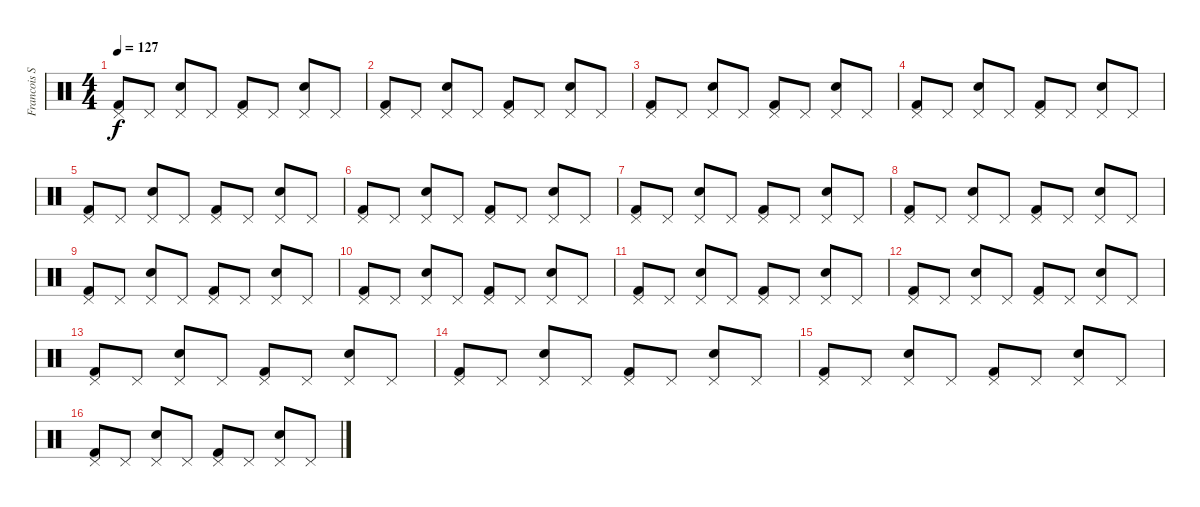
\track ("Francois Soulier" "Francois S") {instrument percussion}
\staff {score}
\articulation defaults
\ts (4 4)
\tempo 127
\clef neutral
\ks c
("Kick (hit) 2" "Pedal Hi-Hat (hit)").8{dy f} "Pedal Hi-Hat (hit)".8 ("Snare (hit) 2" "Pedal Hi-Hat (hit)").8 "Pedal Hi-Hat (hit)".8 ("Kick (hit) 2" "Pedal Hi-Hat (hit)").8 "Pedal Hi-Hat (hit)".8 ("Snare (hit) 2" "Pedal Hi-Hat (hit)").8 "Pedal Hi-Hat (hit)".8 |
("Kick (hit) 2" "Pedal Hi-Hat (hit)").8 "Pedal Hi-Hat (hit)".8 ("Snare (hit) 2" "Pedal Hi-Hat (hit)").8 "Pedal Hi-Hat (hit)".8 ("Kick (hit) 2" "Pedal Hi-Hat (hit)").8 "Pedal Hi-Hat (hit)".8 ("Snare (hit) 2" "Pedal Hi-Hat (hit)").8 "Pedal Hi-Hat (hit)".8 |
("Kick (hit) 2" "Pedal Hi-Hat (hit)").8 "Pedal Hi-Hat (hit)".8 ("Snare (hit) 2" "Pedal Hi-Hat (hit)").8 "Pedal Hi-Hat (hit)".8 ("Kick (hit) 2" "Pedal Hi-Hat (hit)").8 "Pedal Hi-Hat (hit)".8 ("Snare (hit) 2" "Pedal Hi-Hat (hit)").8 "Pedal Hi-Hat (hit)".8 |
("Kick (hit) 2" "Pedal Hi-Hat (hit)").8 "Pedal Hi-Hat (hit)".8 ("Snare (hit) 2" "Pedal Hi-Hat (hit)").8 "Pedal Hi-Hat (hit)".8 ("Kick (hit) 2" "Pedal Hi-Hat (hit)").8 "Pedal Hi-Hat (hit)".8 ("Snare (hit) 2" "Pedal Hi-Hat (hit)").8 "Pedal Hi-Hat (hit)".8 |
("Kick (hit) 2" "Pedal Hi-Hat (hit)").8 "Pedal Hi-Hat (hit)".8 ("Snare (hit) 2" "Pedal Hi-Hat (hit)").8 "Pedal Hi-Hat (hit)".8 ("Kick (hit) 2" "Pedal Hi-Hat (hit)").8 "Pedal Hi-Hat (hit)".8 ("Snare (hit) 2" "Pedal Hi-Hat (hit)").8 "Pedal Hi-Hat (hit)".8 |
("Kick (hit) 2" "Pedal Hi-Hat (hit)").8 "Pedal Hi-Hat (hit)".8 ("Snare (hit) 2" "Pedal Hi-Hat (hit)").8 "Pedal Hi-Hat (hit)".8 ("Kick (hit) 2" "Pedal Hi-Hat (hit)").8 "Pedal Hi-Hat (hit)".8 ("Snare (hit) 2" "Pedal Hi-Hat (hit)").8 "Pedal Hi-Hat (hit)".8 |
("Kick (hit) 2" "Pedal Hi-Hat (hit)").8 "Pedal Hi-Hat (hit)".8 ("Snare (hit) 2" "Pedal Hi-Hat (hit)").8 "Pedal Hi-Hat (hit)".8 ("Kick (hit) 2" "Pedal Hi-Hat (hit)").8 "Pedal Hi-Hat (hit)".8 ("Snare (hit) 2" "Pedal Hi-Hat (hit)").8 "Pedal Hi-Hat (hit)".8 |
("Kick (hit) 2" "Pedal Hi-Hat (hit)").8 "Pedal Hi-Hat (hit)".8 ("Snare (hit) 2" "Pedal Hi-Hat (hit)").8 "Pedal Hi-Hat (hit)".8 ("Kick (hit) 2" "Pedal Hi-Hat (hit)").8 "Pedal Hi-Hat (hit)".8 ("Snare (hit) 2" "Pedal Hi-Hat (hit)").8 "Pedal Hi-Hat (hit)".8 |
("Kick (hit) 2" "Pedal Hi-Hat (hit)").8 "Pedal Hi-Hat (hit)".8 ("Snare (hit) 2" "Pedal Hi-Hat (hit)").8 "Pedal Hi-Hat (hit)".8 ("Kick (hit) 2" "Pedal Hi-Hat (hit)").8 "Pedal Hi-Hat (hit)".8 ("Snare (hit) 2" "Pedal Hi-Hat (hit)").8 "Pedal Hi-Hat (hit)".8 |
("Kick (hit) 2" "Pedal Hi-Hat (hit)").8 "Pedal Hi-Hat (hit)".8 ("Snare (hit) 2" "Pedal Hi-Hat (hit)").8 "Pedal Hi-Hat (hit)".8 ("Kick (hit) 2" "Pedal Hi-Hat (hit)").8 "Pedal Hi-Hat (hit)".8 ("Snare (hit) 2" "Pedal Hi-Hat (hit)").8 "Pedal Hi-Hat (hit)".8 |
("Kick (hit) 2" "Pedal Hi-Hat (hit)").8 "Pedal Hi-Hat (hit)".8 ("Snare (hit) 2" "Pedal Hi-Hat (hit)").8 "Pedal Hi-Hat (hit)".8 ("Kick (hit) 2" "Pedal Hi-Hat (hit)").8 "Pedal Hi-Hat (hit)".8 ("Snare (hit) 2" "Pedal Hi-Hat (hit)").8 "Pedal Hi-Hat (hit)".8 |
("Kick (hit) 2" "Pedal Hi-Hat (hit)").8 "Pedal Hi-Hat (hit)".8 ("Snare (hit) 2" "Pedal Hi-Hat (hit)").8 "Pedal Hi-Hat (hit)".8 ("Kick (hit) 2" "Pedal Hi-Hat (hit)").8 "Pedal Hi-Hat (hit)".8 ("Snare (hit) 2" "Pedal Hi-Hat (hit)").8 "Pedal Hi-Hat (hit)".8 |
("Kick (hit) 2" "Pedal Hi-Hat (hit)").8 "Pedal Hi-Hat (hit)".8 ("Snare (hit) 2" "Pedal Hi-Hat (hit)").8 "Pedal Hi-Hat (hit)".8 ("Kick (hit) 2" "Pedal Hi-Hat (hit)").8 "Pedal Hi-Hat (hit)".8 ("Snare (hit) 2" "Pedal Hi-Hat (hit)").8 "Pedal Hi-Hat (hit)".8 |
("Kick (hit) 2" "Pedal Hi-Hat (hit)").8 "Pedal Hi-Hat (hit)".8 ("Snare (hit) 2" "Pedal Hi-Hat (hit)").8 "Pedal Hi-Hat (hit)".8 ("Kick (hit) 2" "Pedal Hi-Hat (hit)").8 "Pedal Hi-Hat (hit)".8 ("Snare (hit) 2" "Pedal Hi-Hat (hit)").8 "Pedal Hi-Hat (hit)".8 |
("Kick (hit) 2" "Pedal Hi-Hat (hit)").8 "Pedal Hi-Hat (hit)".8 ("Snare (hit) 2" "Pedal Hi-Hat (hit)").8 "Pedal Hi-Hat (hit)".8 ("Kick (hit) 2" "Pedal Hi-Hat (hit)").8 "Pedal Hi-Hat (hit)".8 ("Snare (hit) 2" "Pedal Hi-Hat (hit)").8 "Pedal Hi-Hat (hit)".8 |
("Kick (hit) 2" "Pedal Hi-Hat (hit)").8 "Pedal Hi-Hat (hit)".8 ("Snare (hit) 2" "Pedal Hi-Hat (hit)").8 "Pedal Hi-Hat (hit)".8 ("Kick (hit) 2" "Pedal Hi-Hat (hit)").8 "Pedal Hi-Hat (hit)".8 ("Snare (hit) 2" "Pedal Hi-Hat (hit)").8 "Pedal Hi-Hat (hit)".8
